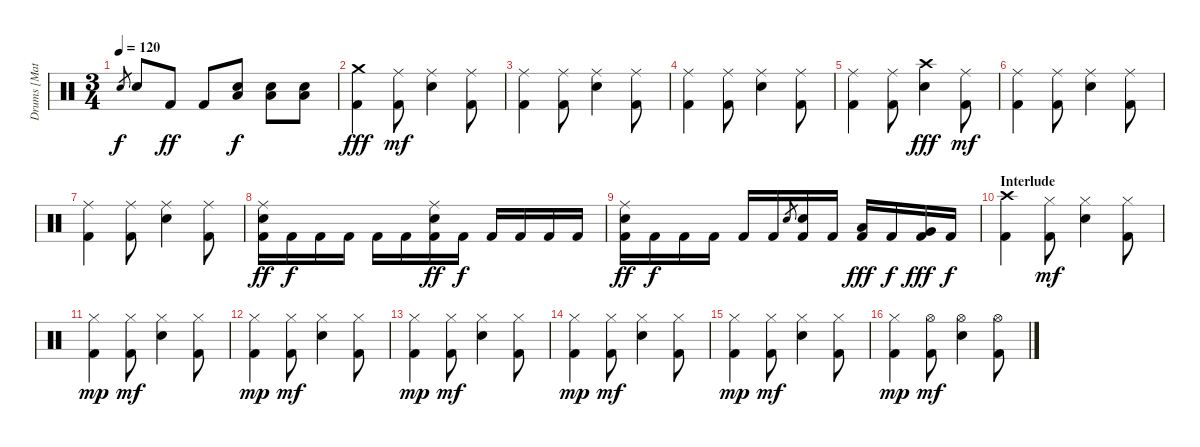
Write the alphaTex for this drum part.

\track ("Drums [Matt]" "Drums [Mat") {instrument percussion}
\staff {score}
\articulation defaults
\ts (3 4)
\tempo 120
\clef neutral
\ks c "Snare (hit) 2".8{gr dy f} "Snare (hit) 2".8 "Kick (hit) 2".8{dy ff} "Kick (hit) 2".8
("Snare (hit) 2" "Low Tom (hit)").8{dy f} ("Snare (hit) 2" "Low Tom (hit)").8 ("Snare (hit) 2" "Low Tom (hit)").8 |
("Crash medium (hit)" "Kick (hit) 2").4{dy fff} ("Ride (middle)" "Kick (hit) 2").8{dy mf} ("Ride (middle)" "Snare (hit) 2").4 ("Ride (middle)" "Kick (hit) 2").8 |
("Ride (middle)" "Kick (hit) 2").4 ("Ride (middle)" "Kick (hit) 2").8 ("Ride (middle)" "Snare (hit) 2").4 ("Ride (middle)" "Kick (hit) 2").8 |
("Ride (middle)" "Kick (hit) 2").4 ("Ride (middle)" "Kick (hit) 2").8 ("Ride (middle)" "Snare (hit) 2").4 ("Ride (middle)" "Kick (hit) 2").8 |
("Ride (middle)" "Kick (hit) 2").4 ("Ride (middle)" "Kick (hit) 2").8 ("Crash high (hit)" "Snare (hit) 2").4{dy fff} ("Ride (middle)" "Kick (hit) 2").8{dy mf} |
("Ride (middle)" "Kick (hit) 2").4 ("Ride (middle)" "Kick (hit) 2").8 ("Ride (middle)" "Snare (hit) 2").4 ("Ride (middle)" "Kick (hit) 2").8 |
("Ride (middle)" "Kick (hit) 2").4 ("Ride (middle)" "Kick (hit) 2").8 ("Ride (middle)" "Snare (hit) 2").4 ("Ride (middle)" "Kick (hit) 2").8 |
("Ride (middle)" "Snare (hit) 2" "Kick (hit) 2").16{dy ff} "Kick (hit) 2".16{dy f} "Kick (hit) 2".16 "Kick (hit) 2".16 "Kick (hit) 2".16 "Kick (hit) 2".16 ("Ride (middle)" "Snare (hit) 2" "Kick (hit) 2").16{dy ff} "Kick (hit) 2".16{dy f} "Kick (hit) 2".16 "Kick (hit) 2".16 "Kick (hit) 2".16 "Kick (hit) 2".16 |
("Ride (middle)" "Snare (hit) 2" "Kick (hit) 2").16{dy ff} "Kick (hit) 2".16{dy f} "Kick (hit) 2".16 "Kick (hit) 2".16 "Kick (hit) 2".16 "Kick (hit) 2".16 "Snare (hit) 2".8{gr} ("Snare (hit) 2" "Kick (hit) 2").16 "Kick (hit) 2".16 ("Low Tom (hit)" "Kick (hit) 2").16{dy fff} "Kick (hit) 2".16{dy f} ("Very Low Tom (hit)" "Kick (hit) 2").16{dy fff} "Kick (hit) 2".16{dy f} |
\section ("" "Interlude")
("Crash high (hit)" "Kick (hit) 2").4 ("Hi-Hat (closed)" "Kick (hit) 2").8{dy mf} ("Hi-Hat (closed)" "Snare (hit) 2").4 ("Hi-Hat (closed)" "Kick (hit) 2").8 |
("Hi-Hat (closed)" "Kick (hit) 2").4{dy mp} ("Hi-Hat (closed)" "Kick (hit) 2").8{dy mf} ("Hi-Hat (closed)" "Snare (hit) 2").4 ("Hi-Hat (closed)" "Kick (hit) 2").8 |
("Hi-Hat (closed)" "Kick (hit) 2").4{dy mp} ("Hi-Hat (closed)" "Kick (hit) 2").8{dy mf} ("Hi-Hat (closed)" "Snare (hit) 2").4 ("Hi-Hat (closed)" "Kick (hit) 2").8 |
("Hi-Hat (closed)" "Kick (hit) 2").4{dy mp} ("Hi-Hat (closed)" "Kick (hit) 2").8{dy mf} ("Hi-Hat (closed)" "Snare (hit) 2").4 ("Hi-Hat (closed)" "Kick (hit) 2").8 |
("Hi-Hat (closed)" "Kick (hit) 2").4{dy mp} ("Hi-Hat (closed)" "Kick (hit) 2").8{dy mf} ("Hi-Hat (closed)" "Snare (hit) 2").4 ("Hi-Hat (closed)" "Kick (hit) 2").8 |
("Hi-Hat (closed)" "Kick (hit) 2").4{dy mp} ("Hi-Hat (closed)" "Kick (hit) 2").8{dy mf} ("Hi-Hat (closed)" "Snare (hit) 2").4 ("Hi-Hat (closed)" "Kick (hit) 2").8 |
("Hi-Hat (closed)" "Kick (hit) 2").4{dy mp} ("Hi-Hat (open)" "Kick (hit) 2").8{dy mf} ("Hi-Hat (open)" "Snare (hit) 2").4 ("Hi-Hat (open)" "Kick (hit) 2").8
